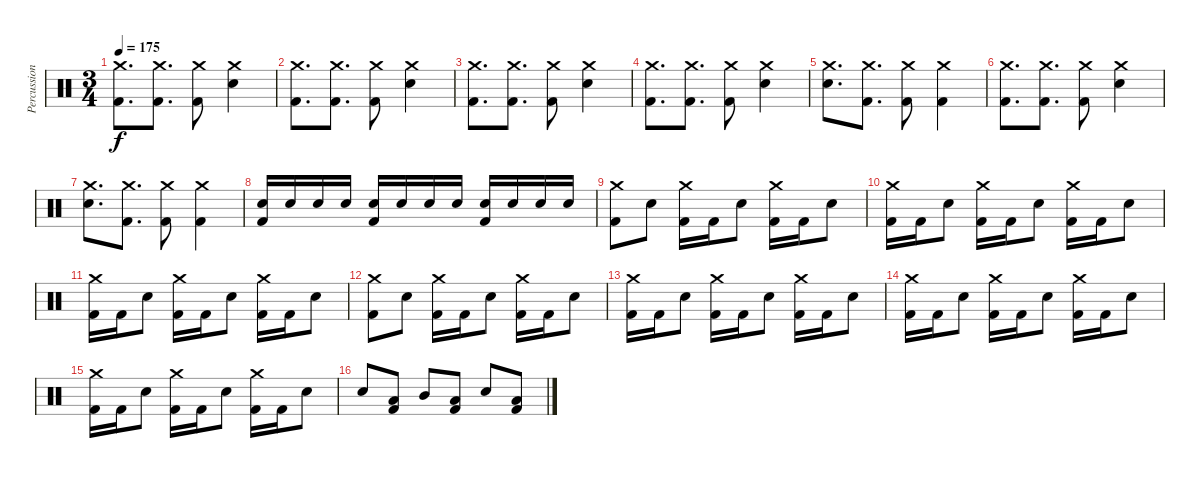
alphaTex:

\track ("Percussion" "Percussion") {instrument percussion}
\staff {score}
\articulation defaults
\ts (3 4)
\tempo 175
\clef neutral
\ks c
("Kick (hit) 2" "Crash medium (hit)").8{d dy f} ("Kick (hit) 2" "Crash medium (hit)").8{d} ("Kick (hit) 2" "Crash medium (hit)").8 ("Electric Snare (hit)" "Crash medium (hit)").4 |
("Kick (hit) 2" "Crash medium (hit)").8{d} ("Kick (hit) 2" "Crash medium (hit)").8{d} ("Kick (hit) 2" "Crash medium (hit)").8 ("Electric Snare (hit)" "Crash medium (hit)").4 |
("Kick (hit) 2" "Crash medium (hit)").8{d} ("Kick (hit) 2" "Crash medium (hit)").8{d} ("Kick (hit) 2" "Crash medium (hit)").8 ("Electric Snare (hit)" "Crash medium (hit)").4 |
("Kick (hit) 2" "Crash medium (hit)").8{d} ("Kick (hit) 2" "Crash medium (hit)").8{d} ("Kick (hit) 2" "Crash medium (hit)").8 ("Electric Snare (hit)" "Crash medium (hit)").4 |
("Electric Snare (hit)" "Crash medium (hit)").8{d} ("Kick (hit) 2" "Crash medium (hit)").8{d} ("Kick (hit) 2" "Crash medium (hit)").8 ("Kick (hit) 2" "Crash medium (hit)").4 |
("Kick (hit) 2" "Crash medium (hit)").8{d} ("Kick (hit) 2" "Crash medium (hit)").8{d} ("Kick (hit) 2" "Crash medium (hit)").8 ("Electric Snare (hit)" "Crash medium (hit)").4 |
("Electric Snare (hit)" "Crash medium (hit)").8{d} ("Kick (hit) 2" "Crash medium (hit)").8{d} ("Kick (hit) 2" "Crash medium (hit)").8 ("Kick (hit) 2" "Crash medium (hit)").4 |
("Electric Snare (hit)" "Kick (hit) 2").16 "Electric Snare (hit)".16 "Electric Snare (hit)".16 "Electric Snare (hit)".16 ("Electric Snare (hit)" "Kick (hit) 2").16 "Electric Snare (hit)".16 "Electric Snare (hit)".16 "Electric Snare (hit)".16 ("Electric Snare (hit)" "Kick (hit) 2").16 "Electric Snare (hit)".16 "Electric Snare (hit)".16 "Electric Snare (hit)".16 |
("Kick (hit) 2" "Crash medium (hit)").8 "Electric Snare (hit)".8 ("Kick (hit) 2" "Crash medium (hit)").16 "Kick (hit) 2".16 "Electric Snare (hit)".8 ("Kick (hit) 2" "Crash medium (hit)").16 "Kick (hit) 2".16 "Electric Snare (hit)".8 |
("Kick (hit) 2" "Crash medium (hit)").16 "Kick (hit) 2".16 "Electric Snare (hit)".8 ("Kick (hit) 2" "Crash medium (hit)").16 "Kick (hit) 2".16 "Electric Snare (hit)".8 ("Kick (hit) 2" "Crash medium (hit)").16 "Kick (hit) 2".16 "Electric Snare (hit)".8 |
("Kick (hit) 2" "Crash medium (hit)").16 "Kick (hit) 2".16 "Electric Snare (hit)".8 ("Kick (hit) 2" "Crash medium (hit)").16 "Kick (hit) 2".16 "Electric Snare (hit)".8 ("Kick (hit) 2" "Crash medium (hit)").16 "Kick (hit) 2".16 "Electric Snare (hit)".8 |
("Kick (hit) 2" "Crash medium (hit)").8 "Electric Snare (hit)".8 ("Kick (hit) 2" "Crash medium (hit)").16 "Kick (hit) 2".16 "Electric Snare (hit)".8 ("Kick (hit) 2" "Crash medium (hit)").16 "Kick (hit) 2".16 "Electric Snare (hit)".8 |
("Kick (hit) 2" "Crash medium (hit)").16 "Kick (hit) 2".16 "Electric Snare (hit)".8 ("Kick (hit) 2" "Crash medium (hit)").16 "Kick (hit) 2".16 "Electric Snare (hit)".8 ("Kick (hit) 2" "Crash medium (hit)").16 "Kick (hit) 2".16 "Electric Snare (hit)".8 |
("Kick (hit) 2" "Crash medium (hit)").16 "Kick (hit) 2".16 "Electric Snare (hit)".8 ("Kick (hit) 2" "Crash medium (hit)").16 "Kick (hit) 2".16 "Electric Snare (hit)".8 ("Kick (hit) 2" "Crash medium (hit)").16 "Kick (hit) 2".16 "Electric Snare (hit)".8 |
("Kick (hit) 2" "Crash medium (hit)").16 "Kick (hit) 2".16 "Electric Snare (hit)".8 ("Kick (hit) 2" "Crash medium (hit)").16 "Kick (hit) 2".16 "Electric Snare (hit)".8 ("Kick (hit) 2" "Crash medium (hit)").16 "Kick (hit) 2".16 "Electric Snare (hit)".8 |
"Electric Snare (hit)".8 ("Low Tom (hit)" "Kick (hit) 2").8 "Mid Tom (hit)".8 ("Low Tom (hit)" "Kick (hit) 2").8 "Electric Snare (hit)".8 ("Low Tom (hit)" "Kick (hit) 2").8
